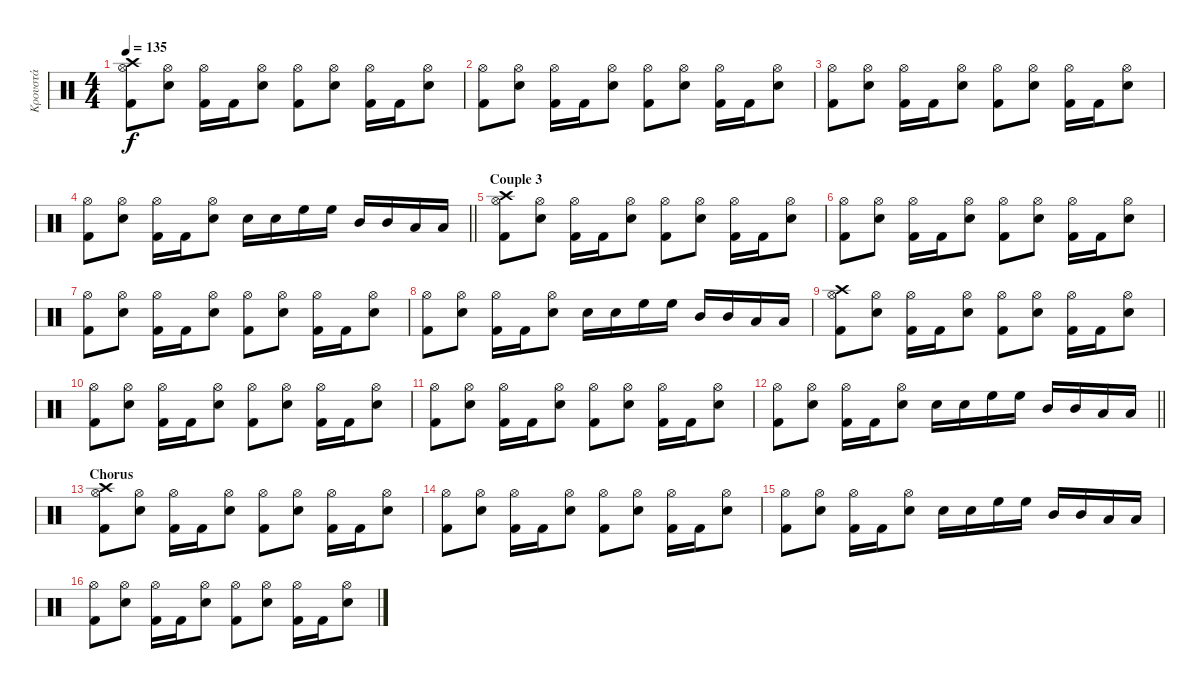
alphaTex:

\track ("Κρουστά" "Κρουστά") {instrument percussion}
\staff {score}
\articulation defaults
\ts (4 4)
\tempo 135
\clef neutral
\ks c
("Crash high (hit)" "Hi-Hat (open)" "Kick (hit) 2").8{dy f} ("Snare (hit) 2" "Hi-Hat (open)").8 ("Hi-Hat (open)" "Kick (hit) 2").16 "Kick (hit) 2".16 ("Snare (hit) 2" "Hi-Hat (open)").8 ("Hi-Hat (open)" "Kick (hit) 2").8 ("Snare (hit) 2" "Hi-Hat (open)").8 ("Hi-Hat (open)" "Kick (hit) 2").16 "Kick (hit) 2".16 ("Snare (hit) 2" "Hi-Hat (open)").8 |
("Hi-Hat (open)" "Kick (hit) 2").8 ("Snare (hit) 2" "Hi-Hat (open)").8 ("Hi-Hat (open)" "Kick (hit) 2").16 "Kick (hit) 2".16 ("Snare (hit) 2" "Hi-Hat (open)").8 ("Hi-Hat (open)" "Kick (hit) 2").8 ("Snare (hit) 2" "Hi-Hat (open)").8 ("Hi-Hat (open)" "Kick (hit) 2").16 "Kick (hit) 2".16 ("Snare (hit) 2" "Hi-Hat (open)").8 |
("Hi-Hat (open)" "Kick (hit) 2").8 ("Snare (hit) 2" "Hi-Hat (open)").8 ("Hi-Hat (open)" "Kick (hit) 2").16 "Kick (hit) 2".16 ("Snare (hit) 2" "Hi-Hat (open)").8 ("Hi-Hat (open)" "Kick (hit) 2").8 ("Snare (hit) 2" "Hi-Hat (open)").8 ("Hi-Hat (open)" "Kick (hit) 2").16 "Kick (hit) 2".16 ("Snare (hit) 2" "Hi-Hat (open)").8 |
\barLineRight lightlight
("Hi-Hat (open)" "Kick (hit) 2").8 ("Snare (hit) 2" "Hi-Hat (open)").8 ("Hi-Hat (open)" "Kick (hit) 2").16 "Kick (hit) 2".16 ("Snare (hit) 2" "Hi-Hat (open)").8 "Snare (hit) 2".16 "Snare (hit) 2".16 "High Floor Tom (hit)".16 "High Floor Tom (hit)".16 "Mid Tom (hit)".16 "Mid Tom (hit)".16 "Low Tom (hit)".16 "Low Tom (hit)".16 |
\section ("" "Couple 3")
("Crash high (hit)" "Hi-Hat (open)" "Kick (hit) 2").8 ("Snare (hit) 2" "Hi-Hat (open)").8 ("Hi-Hat (open)" "Kick (hit) 2").16 "Kick (hit) 2".16 ("Snare (hit) 2" "Hi-Hat (open)").8 ("Hi-Hat (open)" "Kick (hit) 2").8 ("Snare (hit) 2" "Hi-Hat (open)").8 ("Hi-Hat (open)" "Kick (hit) 2").16 "Kick (hit) 2".16 ("Snare (hit) 2" "Hi-Hat (open)").8 |
("Hi-Hat (open)" "Kick (hit) 2").8 ("Snare (hit) 2" "Hi-Hat (open)").8 ("Hi-Hat (open)" "Kick (hit) 2").16 "Kick (hit) 2".16 ("Snare (hit) 2" "Hi-Hat (open)").8 ("Hi-Hat (open)" "Kick (hit) 2").8 ("Snare (hit) 2" "Hi-Hat (open)").8 ("Hi-Hat (open)" "Kick (hit) 2").16 "Kick (hit) 2".16 ("Snare (hit) 2" "Hi-Hat (open)").8 |
("Hi-Hat (open)" "Kick (hit) 2").8 ("Snare (hit) 2" "Hi-Hat (open)").8 ("Hi-Hat (open)" "Kick (hit) 2").16 "Kick (hit) 2".16 ("Snare (hit) 2" "Hi-Hat (open)").8 ("Hi-Hat (open)" "Kick (hit) 2").8 ("Snare (hit) 2" "Hi-Hat (open)").8 ("Hi-Hat (open)" "Kick (hit) 2").16 "Kick (hit) 2".16 ("Snare (hit) 2" "Hi-Hat (open)").8 |
("Hi-Hat (open)" "Kick (hit) 2").8 ("Snare (hit) 2" "Hi-Hat (open)").8 ("Hi-Hat (open)" "Kick (hit) 2").16 "Kick (hit) 2".16 ("Snare (hit) 2" "Hi-Hat (open)").8 "Snare (hit) 2".16 "Snare (hit) 2".16 "High Floor Tom (hit)".16 "High Floor Tom (hit)".16 "Mid Tom (hit)".16 "Mid Tom (hit)".16 "Low Tom (hit)".16 "Low Tom (hit)".16 |
("Crash high (hit)" "Hi-Hat (open)" "Kick (hit) 2").8 ("Snare (hit) 2" "Hi-Hat (open)").8 ("Hi-Hat (open)" "Kick (hit) 2").16 "Kick (hit) 2".16 ("Snare (hit) 2" "Hi-Hat (open)").8 ("Hi-Hat (open)" "Kick (hit) 2").8 ("Snare (hit) 2" "Hi-Hat (open)").8 ("Hi-Hat (open)" "Kick (hit) 2").16 "Kick (hit) 2".16 ("Snare (hit) 2" "Hi-Hat (open)").8 |
("Hi-Hat (open)" "Kick (hit) 2").8 ("Snare (hit) 2" "Hi-Hat (open)").8 ("Hi-Hat (open)" "Kick (hit) 2").16 "Kick (hit) 2".16 ("Snare (hit) 2" "Hi-Hat (open)").8 ("Hi-Hat (open)" "Kick (hit) 2").8 ("Snare (hit) 2" "Hi-Hat (open)").8 ("Hi-Hat (open)" "Kick (hit) 2").16 "Kick (hit) 2".16 ("Snare (hit) 2" "Hi-Hat (open)").8 |
("Hi-Hat (open)" "Kick (hit) 2").8 ("Snare (hit) 2" "Hi-Hat (open)").8 ("Hi-Hat (open)" "Kick (hit) 2").16 "Kick (hit) 2".16 ("Snare (hit) 2" "Hi-Hat (open)").8 ("Hi-Hat (open)" "Kick (hit) 2").8 ("Snare (hit) 2" "Hi-Hat (open)").8 ("Hi-Hat (open)" "Kick (hit) 2").16 "Kick (hit) 2".16 ("Snare (hit) 2" "Hi-Hat (open)").8 |
\barLineRight lightlight
("Hi-Hat (open)" "Kick (hit) 2").8 ("Snare (hit) 2" "Hi-Hat (open)").8 ("Hi-Hat (open)" "Kick (hit) 2").16 "Kick (hit) 2".16 ("Snare (hit) 2" "Hi-Hat (open)").8 "Snare (hit) 2".16 "Snare (hit) 2".16 "High Floor Tom (hit)".16 "High Floor Tom (hit)".16 "Mid Tom (hit)".16 "Mid Tom (hit)".16 "Low Tom (hit)".16 "Low Tom (hit)".16 |
\section ("" "Chorus")
("Crash high (hit)" "Hi-Hat (open)" "Kick (hit) 2").8 ("Snare (hit) 2" "Hi-Hat (open)").8 ("Hi-Hat (open)" "Kick (hit) 2").16 "Kick (hit) 2".16 ("Snare (hit) 2" "Hi-Hat (open)").8 ("Hi-Hat (open)" "Kick (hit) 2").8 ("Snare (hit) 2" "Hi-Hat (open)").8 ("Hi-Hat (open)" "Kick (hit) 2").16 "Kick (hit) 2".16 ("Snare (hit) 2" "Hi-Hat (open)").8 |
("Hi-Hat (open)" "Kick (hit) 2").8 ("Snare (hit) 2" "Hi-Hat (open)").8 ("Hi-Hat (open)" "Kick (hit) 2").16 "Kick (hit) 2".16 ("Snare (hit) 2" "Hi-Hat (open)").8 ("Hi-Hat (open)" "Kick (hit) 2").8 ("Snare (hit) 2" "Hi-Hat (open)").8 ("Hi-Hat (open)" "Kick (hit) 2").16 "Kick (hit) 2".16 ("Snare (hit) 2" "Hi-Hat (open)").8 |
("Hi-Hat (open)" "Kick (hit) 2").8 ("Snare (hit) 2" "Hi-Hat (open)").8 ("Hi-Hat (open)" "Kick (hit) 2").16 "Kick (hit) 2".16 ("Snare (hit) 2" "Hi-Hat (open)").8 "Snare (hit) 2".16 "Snare (hit) 2".16 "High Floor Tom (hit)".16 "High Floor Tom (hit)".16 "Mid Tom (hit)".16 "Mid Tom (hit)".16 "Low Tom (hit)".16 "Low Tom (hit)".16 |
("Hi-Hat (open)" "Kick (hit) 2").8 ("Snare (hit) 2" "Hi-Hat (open)").8 ("Hi-Hat (open)" "Kick (hit) 2").16 "Kick (hit) 2".16 ("Snare (hit) 2" "Hi-Hat (open)").8 ("Hi-Hat (open)" "Kick (hit) 2").8 ("Snare (hit) 2" "Hi-Hat (open)").8 ("Hi-Hat (open)" "Kick (hit) 2").16 "Kick (hit) 2".16 ("Snare (hit) 2" "Hi-Hat (open)").8
